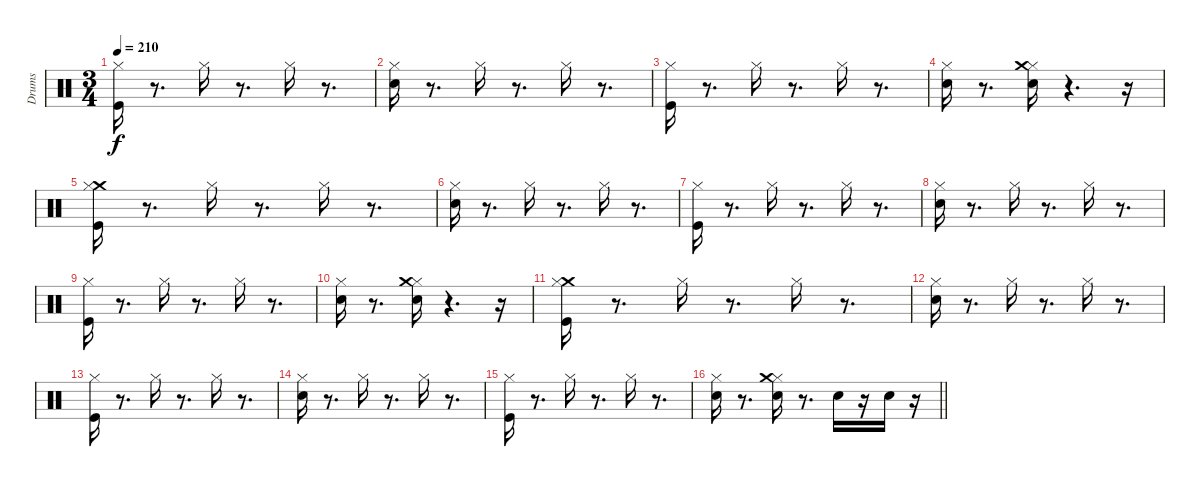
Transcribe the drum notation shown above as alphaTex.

\track ("Drums" "Drums") {instrument percussion}
\staff {score}
\articulation defaults
\ts (3 4)
\tempo 210
\clef neutral
\ks c
("Kick (hit)" "Hi-Hat (closed)").16{dy f} r.8{d} "Hi-Hat (closed)".16 r.8{d} "Hi-Hat (closed)".16 r.8{d} |
("Hi-Hat (closed)" "Electric Snare (hit)").16 r.8{d} "Hi-Hat (closed)".16 r.8{d} "Hi-Hat (closed)".16 r.8{d} |
("Kick (hit)" "Hi-Hat (closed)").16 r.8{d} "Hi-Hat (closed)".16 r.8{d} "Hi-Hat (closed)".16 r.8{d} |
("Hi-Hat (closed)" "Electric Snare (hit)").16 r.8{d} ("Hi-Hat (closed)" "Electric Snare (hit)" "Crash medium (hit)").16 r.4{d} r.16 |
("Kick (hit)" "Crash medium (hit)" "Hi-Hat (closed)").16 r.8{d} "Hi-Hat (closed)".16 r.8{d} "Hi-Hat (closed)".16 r.8{d} |
("Hi-Hat (closed)" "Electric Snare (hit)").16 r.8{d} "Hi-Hat (closed)".16 r.8{d} "Hi-Hat (closed)".16 r.8{d} |
("Kick (hit)" "Hi-Hat (closed)").16 r.8{d} "Hi-Hat (closed)".16 r.8{d} "Hi-Hat (closed)".16 r.8{d} |
("Hi-Hat (closed)" "Electric Snare (hit)").16 r.8{d} "Hi-Hat (closed)".16 r.8{d} "Hi-Hat (closed)".16 r.8{d} |
("Kick (hit)" "Hi-Hat (closed)").16 r.8{d} "Hi-Hat (closed)".16 r.8{d} "Hi-Hat (closed)".16 r.8{d} |
("Hi-Hat (closed)" "Electric Snare (hit)").16 r.8{d} ("Hi-Hat (closed)" "Electric Snare (hit)" "Crash medium (hit)").16 r.4{d} r.16 |
("Kick (hit)" "Crash medium (hit)" "Hi-Hat (closed)").16 r.8{d} "Hi-Hat (closed)".16 r.8{d} "Hi-Hat (closed)".16 r.8{d} |
("Hi-Hat (closed)" "Electric Snare (hit)").16 r.8{d} "Hi-Hat (closed)".16 r.8{d} "Hi-Hat (closed)".16 r.8{d} |
("Kick (hit)" "Hi-Hat (closed)").16 r.8{d} "Hi-Hat (closed)".16 r.8{d} "Hi-Hat (closed)".16 r.8{d} |
("Hi-Hat (closed)" "Electric Snare (hit)").16 r.8{d} "Hi-Hat (closed)".16 r.8{d} "Hi-Hat (closed)".16 r.8{d} |
("Kick (hit)" "Hi-Hat (closed)").16 r.8{d} "Hi-Hat (closed)".16 r.8{d} "Hi-Hat (closed)".16 r.8{d} |
\barLineRight lightlight
("Hi-Hat (closed)" "Electric Snare (hit)").16 r.8{d} ("Hi-Hat (closed)" "Electric Snare (hit)" "Crash medium (hit)").16 r.8{d} "Electric Snare (hit)".16 r.16 "Electric Snare (hit)".16 r.16
